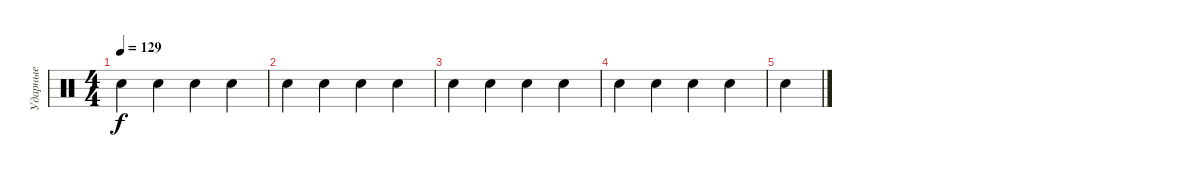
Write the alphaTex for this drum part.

\track ("Ударные" "Ударные") {instrument percussion}
\staff {score}
\articulation defaults
\ts (4 4)
\tempo 129
\clef neutral
\ks c "Hand Clap (hit)".4{dy f} "Hand Clap (hit)".4 "Hand Clap (hit)".4 "Hand Clap (hit)".4
|
"Hand Clap (hit)".4 "Hand Clap (hit)".4 "Hand Clap (hit)".4 "Hand Clap (hit)".4 |
"Hand Clap (hit)".4 "Hand Clap (hit)".4 "Hand Clap (hit)".4 "Hand Clap (hit)".4 |
"Hand Clap (hit)".4 "Hand Clap (hit)".4 "Hand Clap (hit)".4 "Hand Clap (hit)".4 |
"Hand Clap (hit)".4
